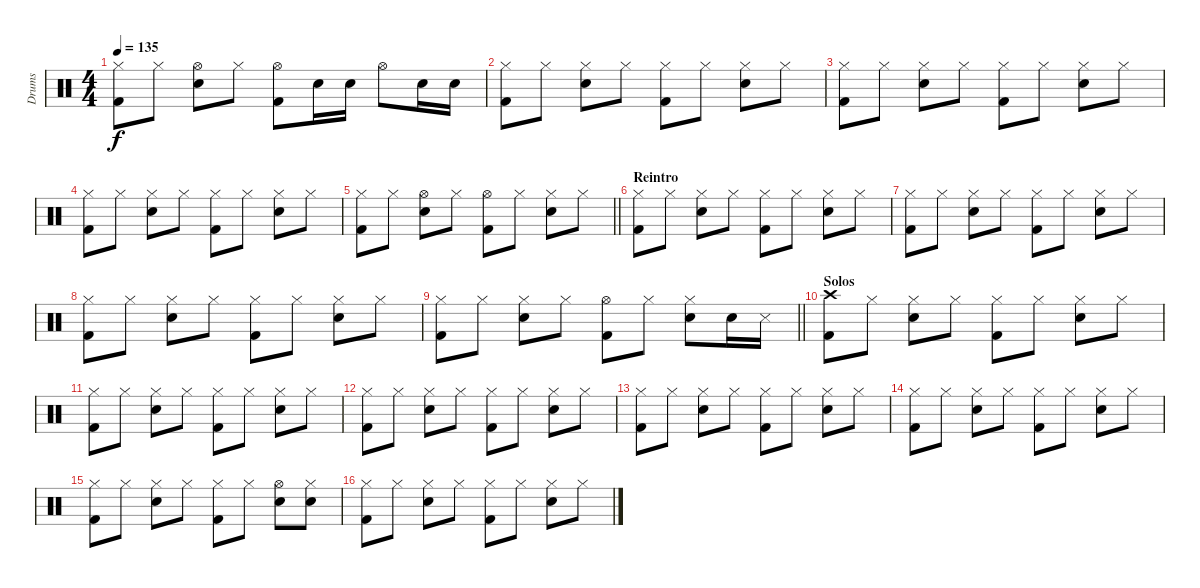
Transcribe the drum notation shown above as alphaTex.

\track ("Drums" "Drums") {instrument percussion}
\staff {score}
\articulation defaults
\ts (4 4)
\tempo 135
\clef neutral
\ks c
("Hi-Hat (closed)" "Kick (hit) 2").8{dy f} "Hi-Hat (closed)".8 ("Hi-Hat (open)" "Snare (hit) 2").8 "Hi-Hat (closed)".8 ("Hi-Hat (open)" "Kick (hit) 2").8 "Snare (hit) 2".16 "Snare (hit) 2".16 "Hi-Hat (open)".8 "Snare (hit) 2".16 "Snare (hit) 2".16 |
("Hi-Hat (closed)" "Kick (hit) 2").8 "Hi-Hat (closed)".8 ("Hi-Hat (closed)" "Snare (hit) 2").8 "Hi-Hat (closed)".8 ("Hi-Hat (closed)" "Kick (hit) 2").8 "Hi-Hat (closed)".8 ("Hi-Hat (closed)" "Snare (hit) 2").8 "Hi-Hat (closed)".8 |
("Hi-Hat (closed)" "Kick (hit) 2").8 "Hi-Hat (closed)".8 ("Hi-Hat (closed)" "Snare (hit) 2").8 "Hi-Hat (closed)".8 ("Hi-Hat (closed)" "Kick (hit) 2").8 "Hi-Hat (closed)".8 ("Hi-Hat (closed)" "Snare (hit) 2").8 "Hi-Hat (closed)".8 |
("Hi-Hat (closed)" "Kick (hit) 2").8 "Hi-Hat (closed)".8 ("Hi-Hat (closed)" "Snare (hit) 2").8 "Hi-Hat (closed)".8 ("Hi-Hat (closed)" "Kick (hit) 2").8 "Hi-Hat (closed)".8 ("Hi-Hat (closed)" "Snare (hit) 2").8 "Hi-Hat (closed)".8 |
\barLineRight lightlight
("Hi-Hat (closed)" "Kick (hit) 2").8 "Hi-Hat (closed)".8 ("Hi-Hat (open)" "Snare (hit) 2").8 "Hi-Hat (closed)".8 ("Hi-Hat (open)" "Kick (hit) 2").8 "Hi-Hat (closed)".8 ("Hi-Hat (closed)" "Snare (hit) 2").8 "Hi-Hat (closed)".8 |
\section ("" "Reintro")
("Hi-Hat (closed)" "Kick (hit) 2").8 "Hi-Hat (closed)".8 ("Hi-Hat (closed)" "Snare (hit) 2").8 "Hi-Hat (closed)".8 ("Hi-Hat (closed)" "Kick (hit) 2").8 "Hi-Hat (closed)".8 ("Hi-Hat (closed)" "Snare (hit) 2").8 "Hi-Hat (closed)".8 |
("Hi-Hat (closed)" "Kick (hit) 2").8 "Hi-Hat (closed)".8 ("Hi-Hat (closed)" "Snare (hit) 2").8 "Hi-Hat (closed)".8 ("Hi-Hat (closed)" "Kick (hit) 2").8 "Hi-Hat (closed)".8 ("Hi-Hat (closed)" "Snare (hit) 2").8 "Hi-Hat (closed)".8 |
("Hi-Hat (closed)" "Kick (hit) 2").8 "Hi-Hat (closed)".8 ("Hi-Hat (closed)" "Snare (hit) 2").8 "Hi-Hat (closed)".8 ("Hi-Hat (closed)" "Kick (hit) 2").8 "Hi-Hat (closed)".8 ("Hi-Hat (closed)" "Snare (hit) 2").8 "Hi-Hat (closed)".8 |
\barLineRight lightlight
("Hi-Hat (closed)" "Kick (hit) 2").8 "Hi-Hat (closed)".8 ("Hi-Hat (closed)" "Snare (hit) 2").8 "Hi-Hat (closed)".8 ("Hi-Hat (open)" "Kick (hit) 2").8 "Hi-Hat (closed)".8 ("Hi-Hat (closed)" "Snare (hit) 2").8 "Snare (hit) 2".16 "Snare (side stick) 3".16 |
\section ("" "Solos")
("Crash high (hit)" "Kick (hit) 2").8 "Hi-Hat (closed)".8 ("Hi-Hat (closed)" "Snare (hit) 2").8 "Hi-Hat (closed)".8 ("Hi-Hat (closed)" "Kick (hit) 2").8 "Hi-Hat (closed)".8 ("Hi-Hat (closed)" "Snare (hit) 2").8 "Hi-Hat (closed)".8 |
("Hi-Hat (closed)" "Kick (hit) 2").8 "Hi-Hat (closed)".8 ("Hi-Hat (closed)" "Snare (hit) 2").8 "Hi-Hat (closed)".8 ("Hi-Hat (closed)" "Kick (hit) 2").8 "Hi-Hat (closed)".8 ("Hi-Hat (closed)" "Snare (hit) 2").8 "Hi-Hat (closed)".8 |
("Hi-Hat (closed)" "Kick (hit) 2").8 "Hi-Hat (closed)".8 ("Hi-Hat (closed)" "Snare (hit) 2").8 "Hi-Hat (closed)".8 ("Hi-Hat (closed)" "Kick (hit) 2").8 "Hi-Hat (closed)".8 ("Hi-Hat (closed)" "Snare (hit) 2").8 "Hi-Hat (closed)".8 |
("Hi-Hat (closed)" "Kick (hit) 2").8 "Hi-Hat (closed)".8 ("Hi-Hat (closed)" "Snare (hit) 2").8 "Hi-Hat (closed)".8 ("Hi-Hat (closed)" "Kick (hit) 2").8 "Hi-Hat (closed)".8 ("Hi-Hat (closed)" "Snare (hit) 2").8 "Hi-Hat (closed)".8 |
("Hi-Hat (closed)" "Kick (hit) 2").8 "Hi-Hat (closed)".8 ("Hi-Hat (closed)" "Snare (hit) 2").8 "Hi-Hat (closed)".8 ("Hi-Hat (closed)" "Kick (hit) 2").8 "Hi-Hat (closed)".8 ("Hi-Hat (closed)" "Snare (hit) 2").8 "Hi-Hat (closed)".8 |
("Hi-Hat (closed)" "Kick (hit) 2").8 "Hi-Hat (closed)".8 ("Hi-Hat (closed)" "Snare (hit) 2").8 "Hi-Hat (closed)".8 ("Hi-Hat (closed)" "Kick (hit) 2").8 "Hi-Hat (closed)".8 ("Hi-Hat (open)" "Snare (hit) 2").8 ("Hi-Hat (closed)" "Snare (hit) 2").8 |
("Hi-Hat (closed)" "Kick (hit) 2").8 "Hi-Hat (closed)".8 ("Hi-Hat (closed)" "Snare (hit) 2").8 "Hi-Hat (closed)".8 ("Hi-Hat (closed)" "Kick (hit) 2").8 "Hi-Hat (closed)".8 ("Hi-Hat (closed)" "Snare (hit) 2").8 "Hi-Hat (closed)".8
